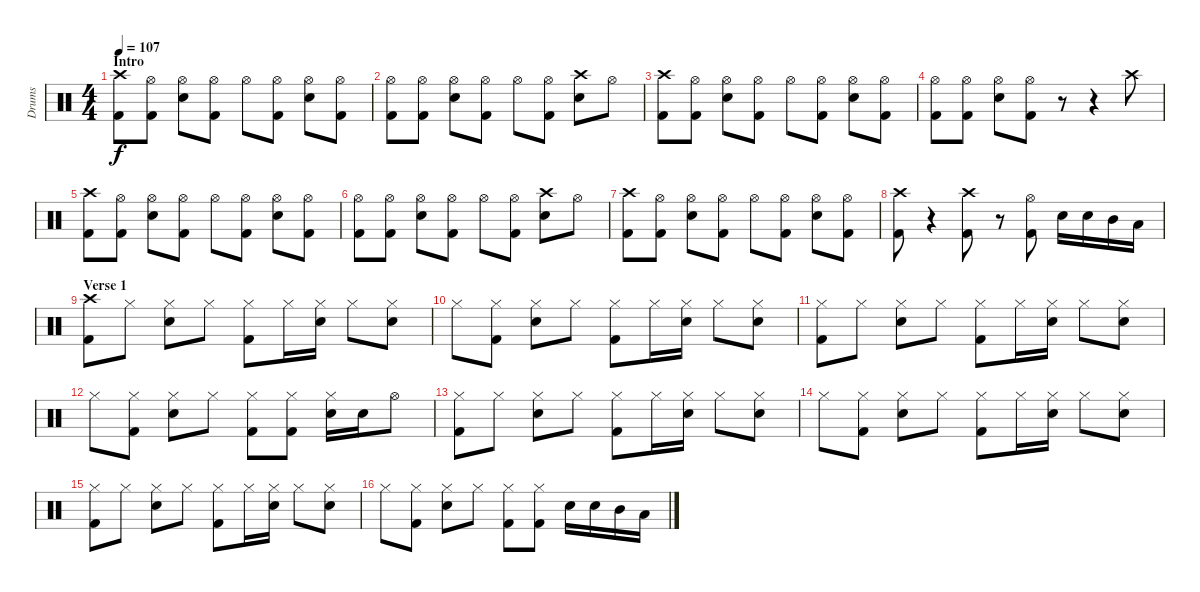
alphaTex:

\track ("Drums" "Drums") {instrument percussion}
\staff {score}
\articulation defaults
\ts (4 4)
\section ("" "Intro")
\tempo 107
\clef neutral
\ks c
("Crash high (hit)" "Kick (hit) 2").8{dy f} ("Hi-Hat (open)" "Kick (hit) 2").8 ("Hi-Hat (open)" "Electric Snare (hit)").8 ("Hi-Hat (open)" "Kick (hit) 2").8 "Hi-Hat (open)".8 ("Hi-Hat (open)" "Kick (hit) 2").8 ("Hi-Hat (open)" "Electric Snare (hit)").8 ("Hi-Hat (open)" "Kick (hit) 2").8 |
("Hi-Hat (open)" "Kick (hit) 2").8 ("Hi-Hat (open)" "Kick (hit) 2").8 ("Hi-Hat (open)" "Electric Snare (hit)").8 ("Hi-Hat (open)" "Kick (hit) 2").8 "Hi-Hat (open)".8 ("Hi-Hat (open)" "Kick (hit) 2").8 ("Crash high (hit)" "Electric Snare (hit)").8 "Hi-Hat (open)".8 |
("Crash high (hit)" "Kick (hit) 2").8 ("Hi-Hat (open)" "Kick (hit) 2").8 ("Hi-Hat (open)" "Electric Snare (hit)").8 ("Hi-Hat (open)" "Kick (hit) 2").8 "Hi-Hat (open)".8 ("Hi-Hat (open)" "Kick (hit) 2").8 ("Hi-Hat (open)" "Electric Snare (hit)").8 ("Hi-Hat (open)" "Kick (hit) 2").8 |
("Hi-Hat (open)" "Kick (hit) 2").8 ("Hi-Hat (open)" "Kick (hit) 2").8 ("Hi-Hat (open)" "Electric Snare (hit)").8 ("Hi-Hat (open)" "Kick (hit) 2").8 r.8 r.4 "Crash high (hit)".8 |
("Crash high (hit)" "Kick (hit) 2").8 ("Hi-Hat (open)" "Kick (hit) 2").8 ("Hi-Hat (open)" "Electric Snare (hit)").8 ("Hi-Hat (open)" "Kick (hit) 2").8 "Hi-Hat (open)".8 ("Hi-Hat (open)" "Kick (hit) 2").8 ("Hi-Hat (open)" "Electric Snare (hit)").8 ("Hi-Hat (open)" "Kick (hit) 2").8 |
("Hi-Hat (open)" "Kick (hit) 2").8 ("Hi-Hat (open)" "Kick (hit) 2").8 ("Hi-Hat (open)" "Electric Snare (hit)").8 ("Hi-Hat (open)" "Kick (hit) 2").8 "Hi-Hat (open)".8 ("Hi-Hat (open)" "Kick (hit) 2").8 ("Crash high (hit)" "Electric Snare (hit)").8 "Hi-Hat (open)".8 |
("Crash high (hit)" "Kick (hit) 2").8 ("Hi-Hat (open)" "Kick (hit) 2").8 ("Hi-Hat (open)" "Electric Snare (hit)").8 ("Hi-Hat (open)" "Kick (hit) 2").8 "Hi-Hat (open)".8 ("Hi-Hat (open)" "Kick (hit) 2").8 ("Hi-Hat (open)" "Electric Snare (hit)").8 ("Hi-Hat (open)" "Kick (hit) 2").8 |
("Crash high (hit)" "Kick (hit) 2").8 r.4 ("Crash high (hit)" "Kick (hit) 2").8 r.8 ("Hi-Hat (open)" "Kick (hit) 2").8 "Electric Snare (hit)".16 "Electric Snare (hit)".16 "Mid Tom (hit)".16 "Low Tom (hit)".16 |
\section ("" "Verse 1")
("Crash high (hit)" "Kick (hit) 2").8 "Hi-Hat (closed)".8 ("Hi-Hat (closed)" "Electric Snare (hit)").8 "Hi-Hat (closed)".8 ("Hi-Hat (closed)" "Kick (hit) 2").8 "Hi-Hat (closed)".16 ("Hi-Hat (closed)" "Electric Snare (hit)").16 "Hi-Hat (closed)".8 ("Hi-Hat (closed)" "Electric Snare (hit)").8 |
"Hi-Hat (closed)".8 ("Hi-Hat (closed)" "Kick (hit) 2").8 ("Hi-Hat (closed)" "Electric Snare (hit)").8 "Hi-Hat (closed)".8 ("Hi-Hat (closed)" "Kick (hit) 2").8 "Hi-Hat (closed)".16 ("Hi-Hat (closed)" "Electric Snare (hit)").16 "Hi-Hat (closed)".8 ("Hi-Hat (closed)" "Electric Snare (hit)").8 |
("Hi-Hat (closed)" "Kick (hit) 2").8 "Hi-Hat (closed)".8 ("Hi-Hat (closed)" "Electric Snare (hit)").8 "Hi-Hat (closed)".8 ("Hi-Hat (closed)" "Kick (hit) 2").8 "Hi-Hat (closed)".16 ("Hi-Hat (closed)" "Electric Snare (hit)").16 "Hi-Hat (closed)".8 ("Hi-Hat (closed)" "Electric Snare (hit)").8 |
"Hi-Hat (closed)".8 ("Hi-Hat (closed)" "Kick (hit) 2").8 ("Hi-Hat (closed)" "Electric Snare (hit)").8 "Hi-Hat (closed)".8 ("Hi-Hat (closed)" "Kick (hit) 2").8 ("Hi-Hat (closed)" "Kick (hit) 2").8 ("Hi-Hat (closed)" "Electric Snare (hit)").16 "Electric Snare (hit)".16 "Hi-Hat (open)".8 |
("Hi-Hat (closed)" "Kick (hit) 2").8 "Hi-Hat (closed)".8 ("Hi-Hat (closed)" "Electric Snare (hit)").8 "Hi-Hat (closed)".8 ("Hi-Hat (closed)" "Kick (hit) 2").8 "Hi-Hat (closed)".16 ("Hi-Hat (closed)" "Electric Snare (hit)").16 "Hi-Hat (closed)".8 ("Hi-Hat (closed)" "Electric Snare (hit)").8 |
"Hi-Hat (closed)".8 ("Hi-Hat (closed)" "Kick (hit) 2").8 ("Hi-Hat (closed)" "Electric Snare (hit)").8 "Hi-Hat (closed)".8 ("Hi-Hat (closed)" "Kick (hit) 2").8 "Hi-Hat (closed)".16 ("Hi-Hat (closed)" "Electric Snare (hit)").16 "Hi-Hat (closed)".8 ("Hi-Hat (closed)" "Electric Snare (hit)").8 |
("Hi-Hat (closed)" "Kick (hit) 2").8 "Hi-Hat (closed)".8 ("Hi-Hat (closed)" "Electric Snare (hit)").8 "Hi-Hat (closed)".8 ("Hi-Hat (closed)" "Kick (hit) 2").8 "Hi-Hat (closed)".16 ("Hi-Hat (closed)" "Electric Snare (hit)").16 "Hi-Hat (closed)".8 ("Hi-Hat (closed)" "Electric Snare (hit)").8 |
"Hi-Hat (closed)".8 ("Hi-Hat (closed)" "Kick (hit) 2").8 ("Hi-Hat (closed)" "Electric Snare (hit)").8 "Hi-Hat (closed)".8 ("Hi-Hat (closed)" "Kick (hit) 2").8 ("Hi-Hat (closed)" "Kick (hit) 2").8 "Electric Snare (hit)".16 "Electric Snare (hit)".16 "Mid Tom (hit)".16 "Low Tom (hit)".16
